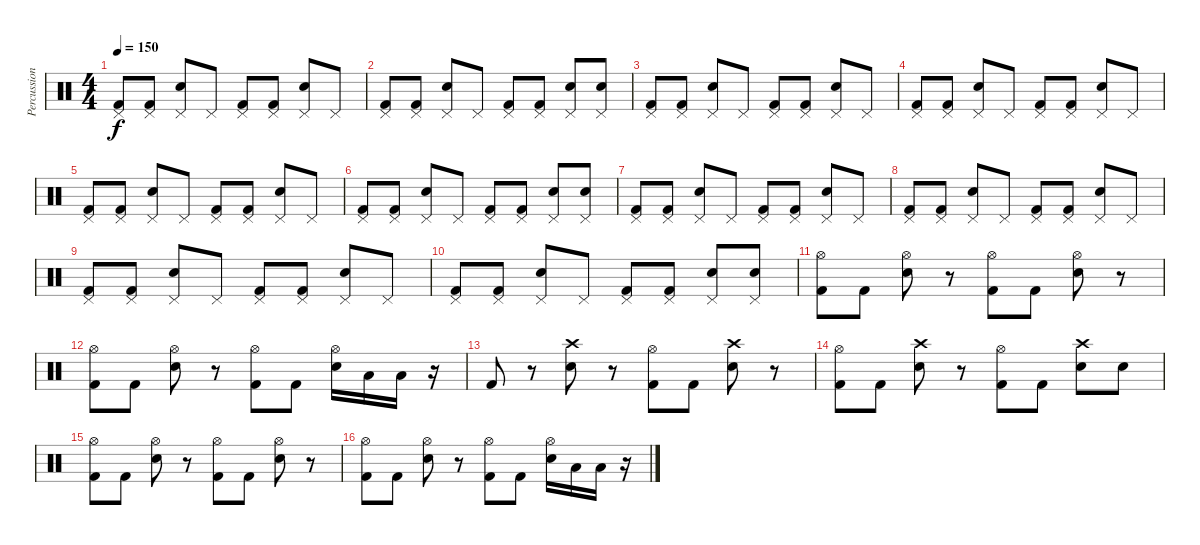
\track ("Percussion" "Percussion") {instrument percussion}
\staff {score}
\articulation defaults
\ts (4 4)
\tempo 150
\clef neutral
\ks c
("Pedal Hi-Hat (hit)" "Kick (hit) 2").8{dy f} ("Pedal Hi-Hat (hit)" "Kick (hit) 2").8 ("Pedal Hi-Hat (hit)" "Snare (hit) 2").8 "Pedal Hi-Hat (hit)".8 ("Pedal Hi-Hat (hit)" "Kick (hit) 2").8 ("Pedal Hi-Hat (hit)" "Kick (hit) 2").8 ("Pedal Hi-Hat (hit)" "Snare (hit) 2").8 "Pedal Hi-Hat (hit)".8 |
("Pedal Hi-Hat (hit)" "Kick (hit) 2").8 ("Pedal Hi-Hat (hit)" "Kick (hit) 2").8 ("Pedal Hi-Hat (hit)" "Snare (hit) 2").8 "Pedal Hi-Hat (hit)".8 ("Pedal Hi-Hat (hit)" "Kick (hit) 2").8 ("Pedal Hi-Hat (hit)" "Kick (hit) 2").8 ("Pedal Hi-Hat (hit)" "Snare (hit) 2").8 ("Pedal Hi-Hat (hit)" "Snare (hit) 2").8 |
("Pedal Hi-Hat (hit)" "Kick (hit) 2").8 ("Pedal Hi-Hat (hit)" "Kick (hit) 2").8 ("Pedal Hi-Hat (hit)" "Snare (hit) 2").8 "Pedal Hi-Hat (hit)".8 ("Pedal Hi-Hat (hit)" "Kick (hit) 2").8 ("Pedal Hi-Hat (hit)" "Kick (hit) 2").8 ("Pedal Hi-Hat (hit)" "Snare (hit) 2").8 "Pedal Hi-Hat (hit)".8 |
("Pedal Hi-Hat (hit)" "Kick (hit) 2").8 ("Pedal Hi-Hat (hit)" "Kick (hit) 2").8 ("Pedal Hi-Hat (hit)" "Snare (hit) 2").8 "Pedal Hi-Hat (hit)".8 ("Pedal Hi-Hat (hit)" "Kick (hit) 2").8 ("Pedal Hi-Hat (hit)" "Kick (hit) 2").8 ("Pedal Hi-Hat (hit)" "Snare (hit) 2").8 "Pedal Hi-Hat (hit)".8 |
("Pedal Hi-Hat (hit)" "Kick (hit) 2").8 ("Pedal Hi-Hat (hit)" "Kick (hit) 2").8 ("Pedal Hi-Hat (hit)" "Snare (hit) 2").8 "Pedal Hi-Hat (hit)".8 ("Pedal Hi-Hat (hit)" "Kick (hit) 2").8 ("Pedal Hi-Hat (hit)" "Kick (hit) 2").8 ("Pedal Hi-Hat (hit)" "Snare (hit) 2").8 "Pedal Hi-Hat (hit)".8 |
("Pedal Hi-Hat (hit)" "Kick (hit) 2").8 ("Pedal Hi-Hat (hit)" "Kick (hit) 2").8 ("Pedal Hi-Hat (hit)" "Snare (hit) 2").8 "Pedal Hi-Hat (hit)".8 ("Pedal Hi-Hat (hit)" "Kick (hit) 2").8 ("Pedal Hi-Hat (hit)" "Kick (hit) 2").8 ("Pedal Hi-Hat (hit)" "Snare (hit) 2").8 ("Pedal Hi-Hat (hit)" "Snare (hit) 2").8 |
("Pedal Hi-Hat (hit)" "Kick (hit) 2").8 ("Pedal Hi-Hat (hit)" "Kick (hit) 2").8 ("Pedal Hi-Hat (hit)" "Snare (hit) 2").8 "Pedal Hi-Hat (hit)".8 ("Pedal Hi-Hat (hit)" "Kick (hit) 2").8 ("Pedal Hi-Hat (hit)" "Kick (hit) 2").8 ("Pedal Hi-Hat (hit)" "Snare (hit) 2").8 "Pedal Hi-Hat (hit)".8 |
("Pedal Hi-Hat (hit)" "Kick (hit) 2").8 ("Pedal Hi-Hat (hit)" "Kick (hit) 2").8 ("Pedal Hi-Hat (hit)" "Snare (hit) 2").8 "Pedal Hi-Hat (hit)".8 ("Pedal Hi-Hat (hit)" "Kick (hit) 2").8 ("Pedal Hi-Hat (hit)" "Kick (hit) 2").8 ("Pedal Hi-Hat (hit)" "Snare (hit) 2").8 "Pedal Hi-Hat (hit)".8 |
("Pedal Hi-Hat (hit)" "Kick (hit) 2").8 ("Pedal Hi-Hat (hit)" "Kick (hit) 2").8 ("Pedal Hi-Hat (hit)" "Snare (hit) 2").8 "Pedal Hi-Hat (hit)".8 ("Pedal Hi-Hat (hit)" "Kick (hit) 2").8 ("Pedal Hi-Hat (hit)" "Kick (hit) 2").8 ("Pedal Hi-Hat (hit)" "Snare (hit) 2").8 "Pedal Hi-Hat (hit)".8 |
("Pedal Hi-Hat (hit)" "Kick (hit) 2").8 ("Pedal Hi-Hat (hit)" "Kick (hit) 2").8 ("Pedal Hi-Hat (hit)" "Snare (hit) 2").8 "Pedal Hi-Hat (hit)".8 ("Pedal Hi-Hat (hit)" "Kick (hit) 2").8 ("Pedal Hi-Hat (hit)" "Kick (hit) 2").8 ("Pedal Hi-Hat (hit)" "Snare (hit) 2").8 ("Pedal Hi-Hat (hit)" "Snare (hit) 2").8 |
("Hi-Hat (open)" "Kick (hit) 2").8{volume 14} "Kick (hit) 2".8 ("Hi-Hat (open)" "Snare (hit) 2").8 r.8 ("Hi-Hat (open)" "Kick (hit) 2").8 "Kick (hit) 2".8 ("Hi-Hat (open)" "Snare (hit) 2").8 r.8 |
("Hi-Hat (open)" "Kick (hit) 2").8 "Kick (hit) 2".8 ("Hi-Hat (open)" "Snare (hit) 2").8 r.8 ("Hi-Hat (open)" "Kick (hit) 2").8 "Kick (hit) 2".8 ("Hi-Hat (open)" "Snare (hit) 2").16 "Low Tom (hit)".16 "Low Tom (hit)".16 r.16 |
"Kick (hit) 2".8 r.8 ("Crash high (hit)" "Snare (hit) 2").8 r.8 ("Hi-Hat (open)" "Kick (hit) 2").8 "Kick (hit) 2".8 ("Crash high (hit)" "Snare (hit) 2").8 r.8 |
("Hi-Hat (open)" "Kick (hit) 2").8 "Kick (hit) 2".8 ("Crash high (hit)" "Snare (hit) 2").8 r.8 ("Hi-Hat (open)" "Kick (hit) 2").8 "Kick (hit) 2".8 ("Crash high (hit)" "Snare (hit) 2").8 "Snare (hit) 2".8 |
("Hi-Hat (open)" "Kick (hit) 2").8 "Kick (hit) 2".8 ("Hi-Hat (open)" "Snare (hit) 2").8 r.8 ("Hi-Hat (open)" "Kick (hit) 2").8 "Kick (hit) 2".8 ("Hi-Hat (open)" "Snare (hit) 2").8 r.8 |
("Hi-Hat (open)" "Kick (hit) 2").8 "Kick (hit) 2".8 ("Hi-Hat (open)" "Snare (hit) 2").8 r.8 ("Hi-Hat (open)" "Kick (hit) 2").8 "Kick (hit) 2".8 ("Hi-Hat (open)" "Snare (hit) 2").16 "Low Tom (hit)".16 "Low Tom (hit)".16 r.16
